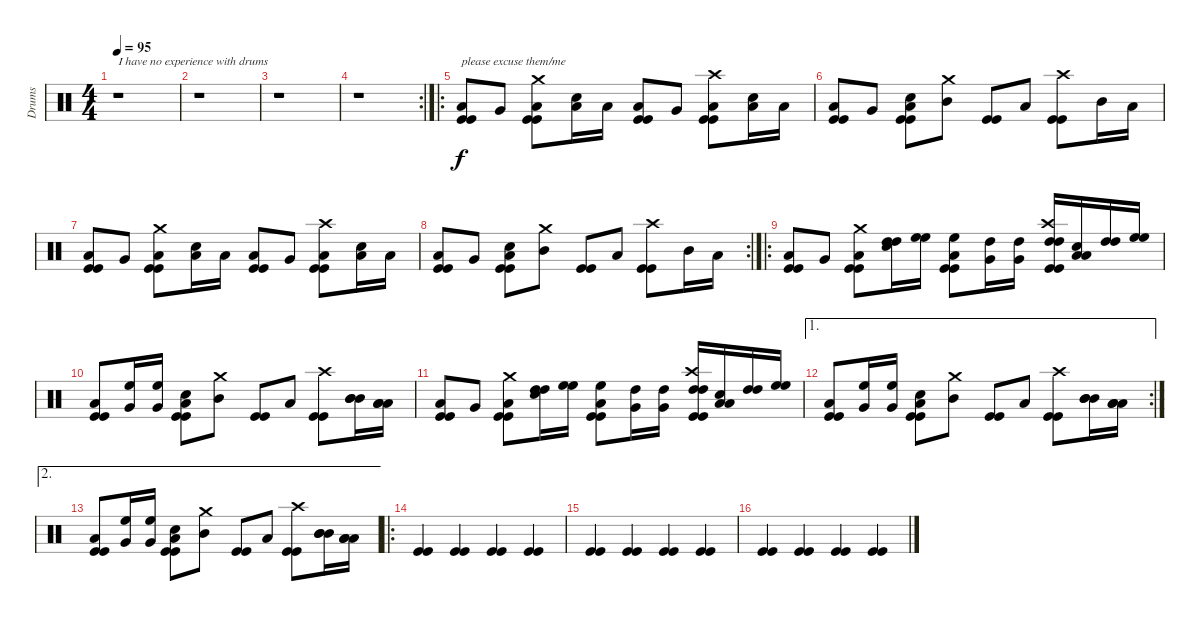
\track ("Drums" "Drums") {instrument percussion}
\staff {score}
\articulation defaults
\ts (4 4)
\tempo 95
\clef neutral
\ks c
r.1{txt "I have no experience with drums" dy f} |
r.1 |
r.1 |
\rc 2
r.1 |
\ro
("Low Tom (hit)" "Kick (hit)" "Kick (hit)").8{txt "please excuse them/me"} "Very Low Tom (hit)".8 ("Crash medium (hit)" "Low Tom (hit)" "Kick (hit)" "Kick (hit)").8 ("Snare (hit) 2" "Low Tom (hit)").16 "Low Tom (hit)".16 ("Low Tom (hit)" "Kick (hit)" "Kick (hit)").8 "Very Low Tom (hit)".8 ("Crash high (hit)" "Low Tom (hit)" "Kick (hit)" "Kick (hit)").8 ("Snare (hit) 2" "Low Tom (hit)").16 "Low Tom (hit)".16 |
("Low Tom (hit)" "Kick (hit)" "Kick (hit)").8 "Very Low Tom (hit)".8 ("Snare (hit) 2" "Low Tom (hit)" "Kick (hit)" "Kick (hit)").8 ("Crash medium (hit)" "Mid Tom (hit)").8 ("Kick (hit)" "Kick (hit)").8 "Low Tom (hit)".8 ("Crash high (hit)" "Kick (hit)" "Kick (hit)").8 "Mid Tom (hit)".16 "Low Tom (hit)".16 |
("Low Tom (hit)" "Kick (hit)" "Kick (hit)").8 "Very Low Tom (hit)".8 ("Crash medium (hit)" "Low Tom (hit)" "Kick (hit)" "Kick (hit)").8 ("Snare (hit) 2" "Low Tom (hit)").16 "Low Tom (hit)".16 ("Low Tom (hit)" "Kick (hit)" "Kick (hit)").8 "Very Low Tom (hit)".8 ("Crash high (hit)" "Low Tom (hit)" "Kick (hit)" "Kick (hit)").8 ("Snare (hit) 2" "Low Tom (hit)").16 "Low Tom (hit)".16 |
\rc 2
("Low Tom (hit)" "Kick (hit)" "Kick (hit)").8 "Very Low Tom (hit)".8 ("Snare (hit) 2" "Low Tom (hit)" "Kick (hit)" "Kick (hit)").8 ("Crash medium (hit)" "Mid Tom (hit)").8 ("Kick (hit)" "Kick (hit)").8 "Low Tom (hit)".8 ("Crash high (hit)" "Kick (hit)" "Kick (hit)").8 "Mid Tom (hit)".16 "Low Tom (hit)".16 |
\ro
("Low Tom (hit)" "Kick (hit)" "Kick (hit)").8 "Very Low Tom (hit)".8 ("Crash medium (hit)" "Low Tom (hit)" "Kick (hit)" "Kick (hit)").8 ("Snare (hit) 2" "High Tom (hit)" "High Tom (hit)").16 ("High Floor Tom (hit)" "High Floor Tom (hit)").16 ("Kick (hit)" "Low Tom (hit)" "High Floor Tom (hit)" "Kick (hit)").8 ("Very Low Tom (hit)" "High Tom (hit)").16 ("Very Low Tom (hit)" "High Tom (hit)").16 ("Kick (hit)" "Crash high (hit)" "High Tom (hit)" "High Tom (hit)" "Kick (hit)").16 ("Snare (hit) 2" "Low Tom (hit)" "Low Tom (hit)").16 ("High Tom (hit)" "High Tom (hit)").16 ("High Floor Tom (hit)" "High Floor Tom (hit)").16 |
("Low Tom (hit)" "Kick (hit)" "Kick (hit)").8 ("Very Low Tom (hit)" "High Floor Tom (hit)").16 ("Very Low Tom (hit)" "High Floor Tom (hit)").16 ("Snare (hit) 2" "Low Tom (hit)" "Kick (hit)" "Kick (hit)").8 ("Crash medium (hit)" "Mid Tom (hit)").8 ("Kick (hit)" "Kick (hit)").8 "Low Tom (hit)".8 ("Crash high (hit)" "Kick (hit)" "Kick (hit)").8 ("Mid Tom (hit)" "Mid Tom (hit)" "Mid Tom (hit)").16 ("Low Tom (hit)" "Low Tom (hit)" "Low Tom (hit)").16 |
("Low Tom (hit)" "Kick (hit)" "Kick (hit)").8 "Very Low Tom (hit)".8 ("Crash medium (hit)" "Low Tom (hit)" "Kick (hit)" "Kick (hit)").8 ("Snare (hit) 2" "High Tom (hit)" "High Tom (hit)").16 ("High Floor Tom (hit)" "High Floor Tom (hit)").16 ("Kick (hit)" "Low Tom (hit)" "High Floor Tom (hit)" "Kick (hit)").8 ("Very Low Tom (hit)" "High Tom (hit)").16 ("Very Low Tom (hit)" "High Tom (hit)").16 ("Kick (hit)" "Crash high (hit)" "High Tom (hit)" "High Tom (hit)" "Kick (hit)").16 ("Snare (hit) 2" "Low Tom (hit)" "Low Tom (hit)").16 ("High Tom (hit)" "High Tom (hit)").16 ("High Floor Tom (hit)" "High Floor Tom (hit)").16 |
\ae 1
\rc 2
("Low Tom (hit)" "Kick (hit)" "Kick (hit)").8 ("Very Low Tom (hit)" "High Floor Tom (hit)").16 ("Very Low Tom (hit)" "High Floor Tom (hit)").16 ("Snare (hit) 2" "Low Tom (hit)" "Kick (hit)" "Kick (hit)").8 ("Crash medium (hit)" "Mid Tom (hit)").8 ("Kick (hit)" "Kick (hit)").8 "Low Tom (hit)".8 ("Crash high (hit)" "Kick (hit)" "Kick (hit)").8 ("Mid Tom (hit)" "Mid Tom (hit)" "Mid Tom (hit)").16 ("Low Tom (hit)" "Low Tom (hit)" "Low Tom (hit)").16 |
\ae 2
("Low Tom (hit)" "Kick (hit)" "Kick (hit)").8 ("Very Low Tom (hit)" "High Floor Tom (hit)").16 ("Very Low Tom (hit)" "High Floor Tom (hit)").16 ("Snare (hit) 2" "Low Tom (hit)" "Kick (hit)" "Kick (hit)").8 ("Crash medium (hit)" "Mid Tom (hit)").8 ("Kick (hit)" "Kick (hit)").8 "Low Tom (hit)".8 ("Crash high (hit)" "Kick (hit)" "Kick (hit)").8 ("Mid Tom (hit)" "Mid Tom (hit)" "Mid Tom (hit)").16 ("Low Tom (hit)" "Low Tom (hit)" "Low Tom (hit)").16 |
\ro
("Kick (hit)" "Kick (hit)").4 ("Kick (hit)" "Kick (hit)").4 ("Kick (hit)" "Kick (hit)").4 ("Kick (hit)" "Kick (hit)").4 |
("Kick (hit)" "Kick (hit)").4 ("Kick (hit)" "Kick (hit)").4 ("Kick (hit)" "Kick (hit)").4 ("Kick (hit)" "Kick (hit)").4 |
("Kick (hit)" "Kick (hit)").4 ("Kick (hit)" "Kick (hit)").4 ("Kick (hit)" "Kick (hit)").4 ("Kick (hit)" "Kick (hit)").4
